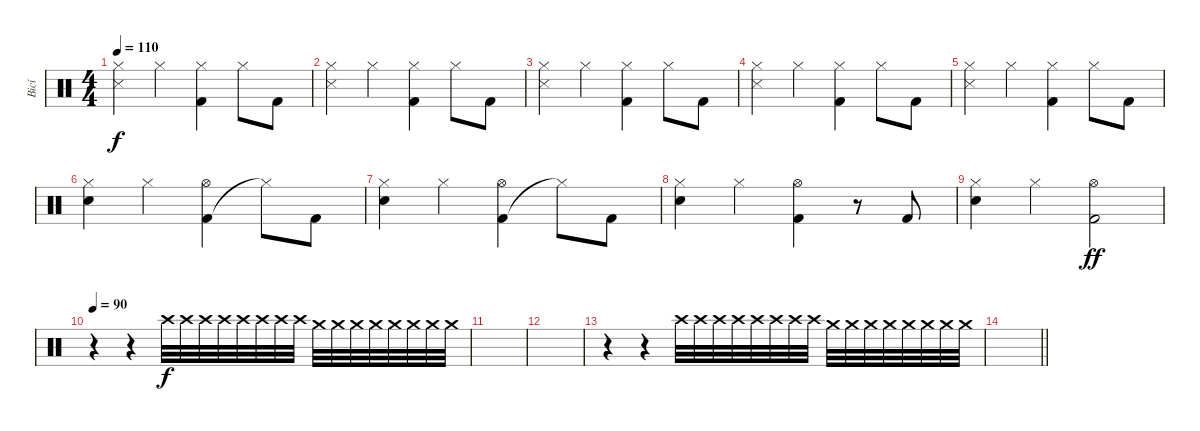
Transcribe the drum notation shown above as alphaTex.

\track ("Bicí" "Bicí") {instrument percussion}
\staff {score}
\articulation defaults
\ts (4 4)
\tempo 110
\clef neutral
\ks c
("Snare (side stick) 3" "Hi-Hat (closed)").4{dy f} "Hi-Hat (closed)".4 ("Kick (hit) 2" "Hi-Hat (closed)").4 "Hi-Hat (closed)".8 "Kick (hit) 2".8 |
("Snare (side stick) 3" "Hi-Hat (closed)").4 "Hi-Hat (closed)".4 ("Kick (hit) 2" "Hi-Hat (closed)").4 "Hi-Hat (closed)".8 "Kick (hit) 2".8 |
("Snare (side stick) 3" "Hi-Hat (closed)").4 "Hi-Hat (closed)".4 ("Kick (hit) 2" "Hi-Hat (closed)").4 "Hi-Hat (closed)".8 "Kick (hit) 2".8 |
("Snare (side stick) 3" "Hi-Hat (closed)").4 "Hi-Hat (closed)".4 ("Kick (hit) 2" "Hi-Hat (closed)").4 "Hi-Hat (closed)".8 "Kick (hit) 2".8 |
("Snare (side stick) 3" "Hi-Hat (closed)").4 "Hi-Hat (closed)".4 ("Kick (hit) 2" "Hi-Hat (closed)").4 "Hi-Hat (closed)".8 "Kick (hit) 2".8 |
("Snare (hit) 2" "Hi-Hat (closed)").4 "Hi-Hat (closed)".4 ("Kick (hit) 2" "Hi-Hat (open)").4 "Hi-Hat (closed)"{t}.8 "Kick (hit) 2".8 |
("Snare (hit) 2" "Hi-Hat (closed)").4 "Hi-Hat (closed)".4 ("Kick (hit) 2" "Hi-Hat (open)").4 "Hi-Hat (closed)"{t}.8 "Kick (hit) 2".8 |
("Snare (hit) 2" "Hi-Hat (closed)").4 "Hi-Hat (closed)".4 ("Kick (hit) 2" "Hi-Hat (open)").4 r.8 "Kick (hit) 2".8 |
("Snare (hit) 2" "Hi-Hat (closed)").4 "Hi-Hat (closed)".4 ("Kick (hit) 2" "Hi-Hat (open)").2{dy ff} |
\tempo 90
r.4 r.4 "Crash high (hit)".32{dy f} "Crash high (hit)".32 "Crash high (hit)".32 "Crash high (hit)".32 "Crash high (hit)".32 "Crash high (hit)".32 "Crash high (hit)".32 "Crash high (hit)".32 "Crash medium (hit)".32 "Crash medium (hit)".32 "Crash medium (hit)".32 "Crash medium (hit)".32 "Crash medium (hit)".32 "Crash medium (hit)".32 "Crash medium (hit)".32 "Crash medium (hit)".32 |
|
|
r.4 r.4 "Crash high (hit)".32 "Crash high (hit)".32 "Crash high (hit)".32 "Crash high (hit)".32 "Crash high (hit)".32 "Crash high (hit)".32 "Crash high (hit)".32 "Crash high (hit)".32 "Crash medium (hit)".32 "Crash medium (hit)".32 "Crash medium (hit)".32 "Crash medium (hit)".32 "Crash medium (hit)".32 "Crash medium (hit)".32 "Crash medium (hit)".32 "Crash medium (hit)".32 |
\barLineRight lightlight
